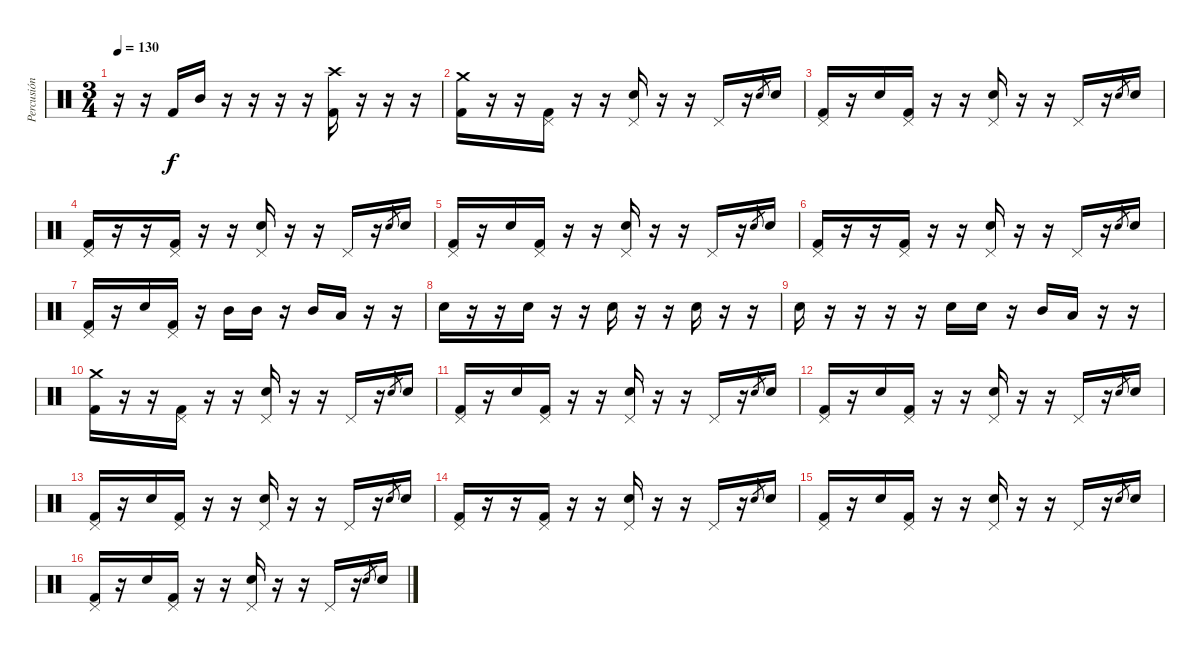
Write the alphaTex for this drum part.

\track ("Percusión" "Percusión") {instrument percussion}
\staff {score}
\articulation defaults
\ts (3 4)
\tempo 130
\clef neutral
\ks c
r.16{dy f} r.16 "Kick (hit) 2".16 "Mid Tom (hit)".16 r.16 r.16 r.16 r.16 ("Crash high (hit)" "Kick (hit) 2").16 r.16 r.16 r.16 |
("Crash medium (hit)" "Kick (hit) 2").16 r.16 r.16 ("Pedal Hi-Hat (hit)" "Kick (hit) 2").16 r.16 r.16 ("Pedal Hi-Hat (hit)" "Electric Snare (hit)").16 r.16 r.16 "Pedal Hi-Hat (hit)".16 r.16 "Electric Snare (hit)".8{gr} "Electric Snare (hit)".16 |
("Pedal Hi-Hat (hit)" "Kick (hit) 2").16 r.16 "Electric Snare (hit)".16 ("Pedal Hi-Hat (hit)" "Kick (hit) 2").16 r.16 r.16 ("Pedal Hi-Hat (hit)" "Electric Snare (hit)").16 r.16 r.16 "Pedal Hi-Hat (hit)".16 r.16 "Electric Snare (hit)".8{gr} "Electric Snare (hit)".16 |
("Pedal Hi-Hat (hit)" "Kick (hit) 2").16 r.16 r.16 ("Pedal Hi-Hat (hit)" "Kick (hit) 2").16 r.16 r.16 ("Pedal Hi-Hat (hit)" "Electric Snare (hit)").16 r.16 r.16 "Pedal Hi-Hat (hit)".16 r.16 "Electric Snare (hit)".8{gr} "Electric Snare (hit)".16 |
("Pedal Hi-Hat (hit)" "Kick (hit) 2").16 r.16 "Electric Snare (hit)".16 ("Pedal Hi-Hat (hit)" "Kick (hit) 2").16 r.16 r.16 ("Pedal Hi-Hat (hit)" "Electric Snare (hit)").16 r.16 r.16 "Pedal Hi-Hat (hit)".16 r.16 "Electric Snare (hit)".8{gr} "Electric Snare (hit)".16 |
("Pedal Hi-Hat (hit)" "Kick (hit) 2").16 r.16 r.16 ("Pedal Hi-Hat (hit)" "Kick (hit) 2").16 r.16 r.16 ("Pedal Hi-Hat (hit)" "Electric Snare (hit)").16 r.16 r.16 "Pedal Hi-Hat (hit)".16 r.16 "Electric Snare (hit)".8{gr} "Electric Snare (hit)".16 |
("Pedal Hi-Hat (hit)" "Kick (hit) 2").16 r.16 "Electric Snare (hit)".16 ("Pedal Hi-Hat (hit)" "Kick (hit) 2").16 r.16 "Mid Tom (hit)".16 "Mid Tom (hit)".16 r.16 "Mid Tom (hit)".16 "Low Tom (hit)".16 r.16 r.16 |
"Electric Snare (hit)".16 r.16 r.16 "Electric Snare (hit)".16 r.16 r.16 "Electric Snare (hit)".16 r.16 r.16 "Electric Snare (hit)".16 r.16 r.16 |
"Electric Snare (hit)".16 r.16 r.16 r.16 r.16 "Electric Snare (hit)".16 "Electric Snare (hit)".16 r.16 "Mid Tom (hit)".16 "Low Tom (hit)".16 r.16 r.16 |
("Crash medium (hit)" "Kick (hit) 2").16 r.16 r.16 ("Pedal Hi-Hat (hit)" "Kick (hit) 2").16 r.16 r.16 ("Pedal Hi-Hat (hit)" "Electric Snare (hit)").16 r.16 r.16 "Pedal Hi-Hat (hit)".16 r.16 "Electric Snare (hit)".8{gr} "Electric Snare (hit)".16 |
("Pedal Hi-Hat (hit)" "Kick (hit) 2").16 r.16 "Electric Snare (hit)".16 ("Pedal Hi-Hat (hit)" "Kick (hit) 2").16 r.16 r.16 ("Pedal Hi-Hat (hit)" "Electric Snare (hit)").16 r.16 r.16 "Pedal Hi-Hat (hit)".16 r.16 "Electric Snare (hit)".8{gr} "Electric Snare (hit)".16 |
("Pedal Hi-Hat (hit)" "Kick (hit) 2").16 r.16 "Electric Snare (hit)".16 ("Pedal Hi-Hat (hit)" "Kick (hit) 2").16 r.16 r.16 ("Pedal Hi-Hat (hit)" "Electric Snare (hit)").16 r.16 r.16 "Pedal Hi-Hat (hit)".16 r.16 "Electric Snare (hit)".8{gr} "Electric Snare (hit)".16 |
("Pedal Hi-Hat (hit)" "Kick (hit) 2").16 r.16 "Electric Snare (hit)".16 ("Pedal Hi-Hat (hit)" "Kick (hit) 2").16 r.16 r.16 ("Pedal Hi-Hat (hit)" "Electric Snare (hit)").16 r.16 r.16 "Pedal Hi-Hat (hit)".16 r.16 "Electric Snare (hit)".8{gr} "Electric Snare (hit)".16 |
("Pedal Hi-Hat (hit)" "Kick (hit) 2").16 r.16 r.16 ("Pedal Hi-Hat (hit)" "Kick (hit) 2").16 r.16 r.16 ("Pedal Hi-Hat (hit)" "Electric Snare (hit)").16 r.16 r.16 "Pedal Hi-Hat (hit)".16 r.16 "Electric Snare (hit)".8{gr} "Electric Snare (hit)".16 |
("Pedal Hi-Hat (hit)" "Kick (hit) 2").16 r.16 "Electric Snare (hit)".16 ("Pedal Hi-Hat (hit)" "Kick (hit) 2").16 r.16 r.16 ("Pedal Hi-Hat (hit)" "Electric Snare (hit)").16 r.16 r.16 "Pedal Hi-Hat (hit)".16 r.16 "Electric Snare (hit)".8{gr} "Electric Snare (hit)".16 |
("Pedal Hi-Hat (hit)" "Kick (hit) 2").16 r.16 "Electric Snare (hit)".16 ("Pedal Hi-Hat (hit)" "Kick (hit) 2").16 r.16 r.16 ("Pedal Hi-Hat (hit)" "Electric Snare (hit)").16 r.16 r.16 "Pedal Hi-Hat (hit)".16 r.16 "Electric Snare (hit)".8{gr} "Electric Snare (hit)".16
